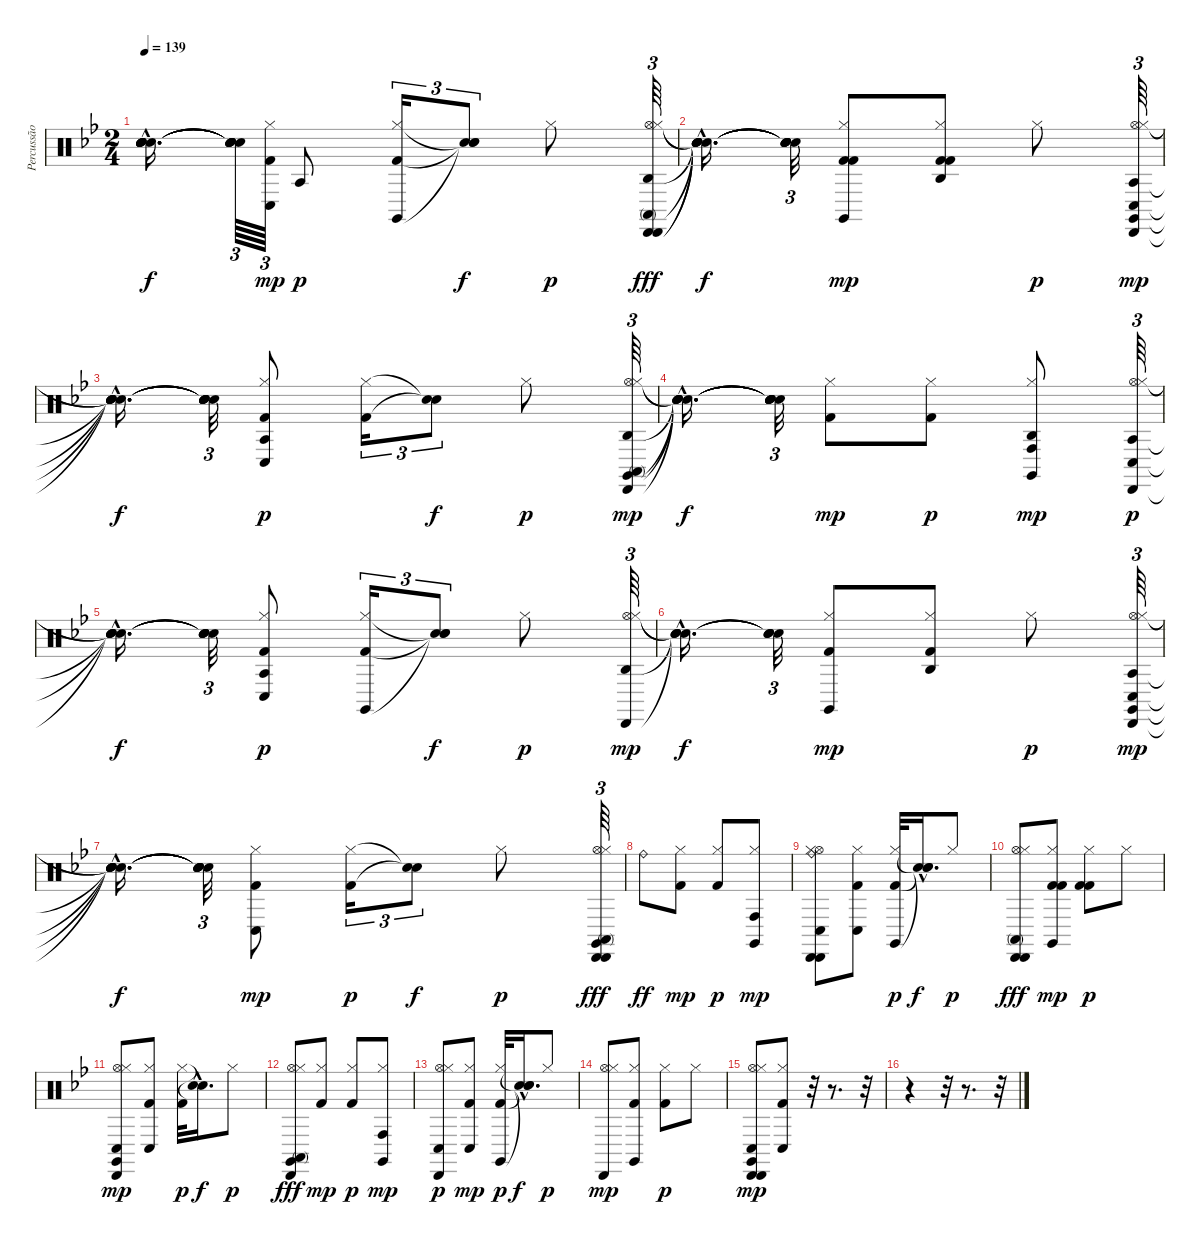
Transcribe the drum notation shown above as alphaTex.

\track ("Percussão" "Percussão") {instrument percussion}
\staff {score}
\articulation defaults
\ts (2 4)
\tempo 139
\clef neutral
\ks bb
("Snare (hit)"{hac t} "Snare (hit)"{hac t} "Snare (hit)"{hac t} "Snare (hit)"{hac t} "Snare (hit)"{hac t} "Snare (hit)"{hac t}).16{d dy f} ("Snare (hit)"{t} "Snare (hit)"{t} "Snare (hit)"{t} "Snare (hit)"{t} "Snare (hit)"{t} "Snare (hit)"{t}).64{tu (3 2)} ("Hi-Hat (closed)" "Conga low (hit)" "Kick (hit) 2").64{tu (3 2) dy mp} "Agogo tow (hit)".8{dy p} ("Kick (hit) 2" "Claves (hit)" "Hi-Hat (closed)").16{tu (3 2)} ("Snare (hit)"{t} "Snare (hit)"{t} "Snare (hit)"{t}).8{tu (3 2) dy f} "Hi-Hat (closed)".8{dy p} ("Agogo high (hit)" "Hi-Hat (open)" "Hi-Hat (closed)" "Cabasa (hit)" "Cabasa (hit)" "Conga high (mute)").64{tu (3 2) dy fff} |
("Snare (hit)"{hac t} "Snare (hit)"{hac t} "Snare (hit)"{hac t} "Snare (hit)"{hac t} "Snare (hit)"{hac t} "Snare (hit)"{hac t}).16{d dy f} ("Snare (hit)"{t} "Snare (hit)"{t} "Snare (hit)"{t} "Snare (hit)"{t} "Snare (hit)"{t} "Snare (hit)"{t}).32{tu (3 2)} ("Hi-Hat (closed)" "Claves (hit)" "Kick (hit) 2" "Kick (hit) 2").8{dy mp} ("Kick (hit) 2" "Kick (hit) 2" "Hi-Hat (closed)" "Agogo high (hit)").8 "Hi-Hat (closed)".8{dy p} ("Agogo tow (hit)" "Hi-Hat (open)" "Hi-Hat (closed)" "Claves (hit)" "Conga low (hit)" "Cabasa (hit)").64{tu (3 2) dy mp} |
("Snare (hit)"{hac t} "Snare (hit)"{hac t} "Snare (hit)"{hac t} "Snare (hit)"{hac t} "Snare (hit)"{hac t} "Snare (hit)"{hac t}).16{d dy f} ("Snare (hit)"{t} "Snare (hit)"{t} "Snare (hit)"{t} "Snare (hit)"{t} "Snare (hit)"{t} "Snare (hit)"{t}).32{tu (3 2)} ("Hi-Hat (closed)" "Conga low (hit)" "Kick (hit) 2" "Agogo tow (hit)").8{dy p} ("Kick (hit) 2" "Hi-Hat (closed)").16{tu (3 2)} ("Snare (hit)"{t} "Snare (hit)"{t}).8{tu (3 2) dy f} "Hi-Hat (closed)".8{dy p} ("Hi-Hat (open)" "Hi-Hat (closed)" "Claves (hit)" "Cabasa (hit)" "Conga high (mute)" "Agogo high (hit)").64{tu (3 2) dy mp} |
("Snare (hit)"{hac t} "Snare (hit)"{hac t} "Snare (hit)"{hac t} "Snare (hit)"{hac t} "Snare (hit)"{hac t} "Snare (hit)"{hac t}).16{d dy f} ("Snare (hit)"{t} "Snare (hit)"{t} "Snare (hit)"{t} "Snare (hit)"{t} "Snare (hit)"{t} "Snare (hit)"{t}).32{tu (3 2)} ("Hi-Hat (closed)" "Kick (hit) 2").8{dy mp} ("Kick (hit) 2" "Hi-Hat (closed)").8{dy p} ("Agogo high (hit)" "Hi-Hat (closed)" "Claves (hit)" "Conga high (hit)").8{dy mp} ("Agogo tow (hit)" "Hi-Hat (open)" "Hi-Hat (closed)" "Conga low (hit)" "Cabasa (hit)").64{tu (3 2) dy p} |
("Snare (hit)"{hac t} "Snare (hit)"{hac t} "Snare (hit)"{hac t} "Snare (hit)"{hac t} "Snare (hit)"{hac t}).16{d dy f} ("Snare (hit)"{t} "Snare (hit)"{t} "Snare (hit)"{t} "Snare (hit)"{t} "Snare (hit)"{t}).32{tu (3 2)} ("Hi-Hat (closed)" "Conga low (hit)" "Kick (hit) 2" "Agogo tow (hit)").8{dy p} ("Kick (hit) 2" "Claves (hit)" "Hi-Hat (closed)").16{tu (3 2)} ("Snare (hit)"{t} "Snare (hit)"{t} "Snare (hit)"{t}).8{tu (3 2) dy f} "Hi-Hat (closed)".8{dy p} ("Agogo high (hit)" "Hi-Hat (open)" "Hi-Hat (closed)" "Cabasa (hit)").64{tu (3 2) dy mp} |
("Snare (hit)"{hac t} "Snare (hit)"{hac t} "Snare (hit)"{hac t} "Snare (hit)"{hac t}).16{d dy f} ("Snare (hit)"{t} "Snare (hit)"{t} "Snare (hit)"{t} "Snare (hit)"{t}).32{tu (3 2)} ("Hi-Hat (closed)" "Claves (hit)" "Kick (hit) 2").8{dy mp} ("Kick (hit) 2" "Hi-Hat (closed)" "Agogo high (hit)").8 "Hi-Hat (closed)".8{dy p} ("Agogo tow (hit)" "Hi-Hat (open)" "Hi-Hat (closed)" "Claves (hit)" "Conga low (hit)" "Cabasa (hit)").64{tu (3 2) dy mp} |
("Snare (hit)"{hac t} "Snare (hit)"{hac t} "Snare (hit)"{hac t} "Snare (hit)"{hac t} "Snare (hit)"{hac t} "Snare (hit)"{hac t}).16{d dy f} ("Snare (hit)"{t} "Snare (hit)"{t} "Snare (hit)"{t} "Snare (hit)"{t} "Snare (hit)"{t} "Snare (hit)"{t}).32{tu (3 2)} ("Hi-Hat (closed)" "Conga low (hit)" "Kick (hit) 2").8{dy mp} ("Kick (hit) 2" "Hi-Hat (closed)").16{tu (3 2) dy p} ("Snare (hit)"{t} "Snare (hit)"{t}).8{tu (3 2) dy f} "Hi-Hat (closed)".8{dy p} ("Hi-Hat (open)" "Hi-Hat (closed)" "Claves (hit)" "Cabasa (hit)" "Cabasa (hit)" "Conga high (mute)").64{tu (3 2) dy fff} |
"Ride (bell)".8{dy ff} ("Hi-Hat (closed)" "Kick (hit) 2").8{dy mp} ("Kick (hit) 2" "Hi-Hat (closed)").8{dy p} ("Hi-Hat (closed)" "Claves (hit)" "Conga high (hit)").8{dy mp} |
("Hi-Hat (open)" "Hi-Hat (closed)" "Conga low (hit)" "Cabasa (hit)" "Cabasa (hit)" "Ride (bell)").8 ("Hi-Hat (closed)" "Conga low (hit)" "Kick (hit) 2").8 ("Kick (hit) 2" "Claves (hit)" "Hi-Hat (closed)").32{dy p} ("Snare (hit)"{hac t} "Snare (hit)"{hac t} "Snare (hit)"{hac t}).16{d dy f} "Hi-Hat (closed)".8{dy p} |
("Hi-Hat (open)" "Hi-Hat (closed)" "Cabasa (hit)" "Cabasa (hit)" "Conga high (mute)").8{dy fff} ("Hi-Hat (closed)" "Claves (hit)" "Kick (hit) 2" "Kick (hit) 2").8{dy mp} ("Kick (hit) 2" "Kick (hit) 2" "Hi-Hat (closed)").8{dy p} "Hi-Hat (closed)".8 |
("Hi-Hat (open)" "Hi-Hat (closed)" "Claves (hit)" "Conga low (hit)" "Cabasa (hit)").8{dy mp} ("Hi-Hat (closed)" "Conga low (hit)" "Kick (hit) 2").8 ("Kick (hit) 2" "Hi-Hat (closed)").32{dy p} ("Snare (hit)"{hac t} "Snare (hit)"{hac t}).16{d dy f} "Hi-Hat (closed)".8{dy p} |
("Hi-Hat (open)" "Hi-Hat (closed)" "Claves (hit)" "Cabasa (hit)" "Conga high (mute)").8{dy fff} ("Hi-Hat (closed)" "Kick (hit) 2").8{dy mp} ("Kick (hit) 2" "Hi-Hat (closed)").8{dy p} ("Hi-Hat (closed)" "Claves (hit)" "Conga high (hit)").8{dy mp} |
("Hi-Hat (open)" "Hi-Hat (closed)" "Conga low (hit)" "Cabasa (hit)").8{dy p} ("Hi-Hat (closed)" "Conga low (hit)" "Kick (hit) 2").8{dy mp} ("Kick (hit) 2" "Claves (hit)" "Hi-Hat (closed)").32{dy p} ("Snare (hit)"{hac t} "Snare (hit)"{hac t} "Snare (hit)"{hac t}).16{d dy f} "Hi-Hat (closed)".8{dy p} |
("Hi-Hat (open)" "Hi-Hat (closed)" "Cabasa (hit)").8{dy mp} ("Hi-Hat (closed)" "Claves (hit)" "Kick (hit) 2").8 ("Kick (hit) 2" "Hi-Hat (closed)").8{dy p} "Hi-Hat (closed)".8 |
("Hi-Hat (open)" "Hi-Hat (closed)" "Claves (hit)" "Conga low (hit)" "Cabasa (hit)" "Cabasa (hit)").8{dy mp} ("Hi-Hat (closed)" "Conga low (hit)" "Kick (hit) 2").8 r.32 r.8{d} r.32 |
r.4 r.32 r.8{d} r.32
